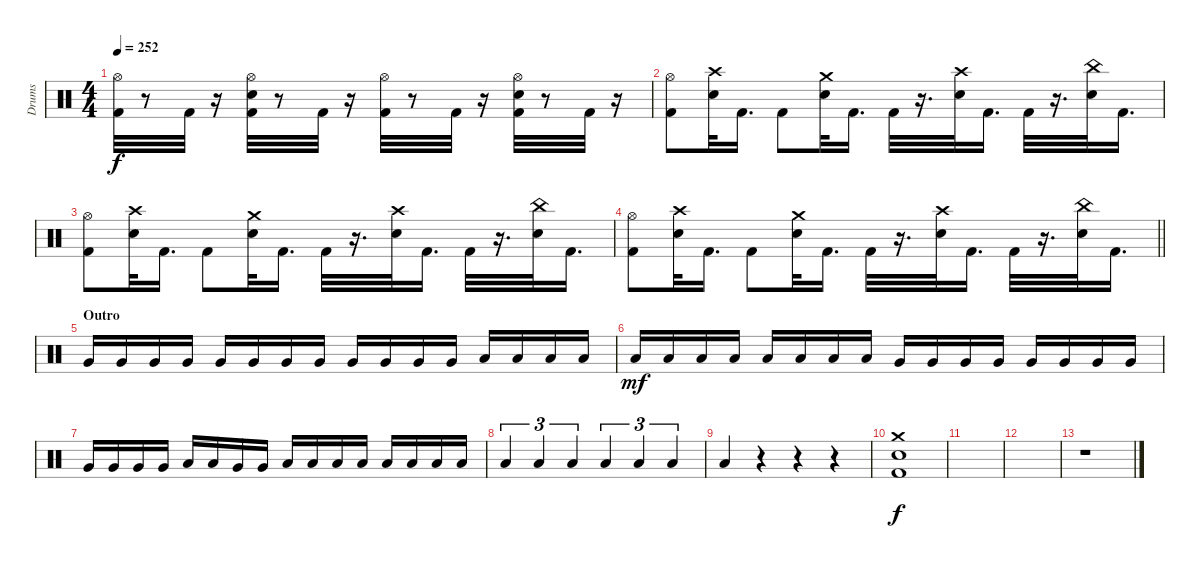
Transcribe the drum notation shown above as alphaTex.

\track ("Drums" "Drums") {instrument percussion}
\staff {score}
\articulation defaults
\ts (4 4)
\tempo 252
\clef neutral
\ks c
("Hi-Hat (open)" "Kick (hit) 2").32{dy f} r.8 "Kick (hit) 2".32 r.16 ("Snare (hit) 2" "Kick (hit) 2" "Hi-Hat (open)").32 r.8 "Kick (hit) 2".32 r.16 ("Kick (hit) 2" "Hi-Hat (open)").32 r.8 "Kick (hit) 2".32 r.16 ("Hi-Hat (open)" "Kick (hit) 2" "Snare (hit) 2").32 r.8 "Kick (hit) 2".32 r.16 |
("Hi-Hat (open)" "Kick (hit) 2").8 ("Crash high (hit)" "Snare (hit) 2").32 "Kick (hit) 2".16{d} "Kick (hit) 2".8 ("Snare (hit) 2" "Crash medium (hit)").32 "Kick (hit) 2".16{d} "Kick (hit) 2".32 r.16{d} ("Crash high (hit)" "Snare (hit) 2").32 "Kick (hit) 2".16{d} "Kick (hit) 2".32 r.16{d} ("Snare (hit) 2" "China (hit)").32 "Kick (hit) 2".16{d} |
("Hi-Hat (open)" "Kick (hit) 2").8 ("Crash high (hit)" "Snare (hit) 2").32 "Kick (hit) 2".16{d} "Kick (hit) 2".8 ("Snare (hit) 2" "Crash medium (hit)").32 "Kick (hit) 2".16{d} "Kick (hit) 2".32 r.16{d} ("Crash high (hit)" "Snare (hit) 2").32 "Kick (hit) 2".16{d} "Kick (hit) 2".32 r.16{d} ("Snare (hit) 2" "China (hit)").32 "Kick (hit) 2".16{d} |
\barLineRight lightlight
("Hi-Hat (open)" "Kick (hit) 2").8 ("Crash high (hit)" "Snare (hit) 2").32 "Kick (hit) 2".16{d} "Kick (hit) 2".8 ("Snare (hit) 2" "Crash medium (hit)").32 "Kick (hit) 2".16{d} "Kick (hit) 2".32 r.16{d} ("Crash high (hit)" "Snare (hit) 2").32 "Kick (hit) 2".16{d} "Kick (hit) 2".32 r.16{d} ("Snare (hit) 2" "China (hit)").32 "Kick (hit) 2".16{d} |
\section ("" "Outro")
"Very Low Tom (hit)".16 "Very Low Tom (hit)".16 "Very Low Tom (hit)".16 "Very Low Tom (hit)".16 "Very Low Tom (hit)".16 "Very Low Tom (hit)".16 "Very Low Tom (hit)".16 "Very Low Tom (hit)".16 "Very Low Tom (hit)".16 "Very Low Tom (hit)".16 "Very Low Tom (hit)".16 "Very Low Tom (hit)".16 "Low Tom (hit)".16 "Low Tom (hit)".16 "Low Tom (hit)".16 "Low Tom (hit)".16 |
"Low Tom (hit)".16{dy mf} "Low Tom (hit)".16 "Low Tom (hit)".16 "Low Tom (hit)".16 "Low Tom (hit)".16 "Low Tom (hit)".16 "Low Tom (hit)".16 "Low Tom (hit)".16 "Very Low Tom (hit)".16 "Very Low Tom (hit)".16 "Very Low Tom (hit)".16 "Very Low Tom (hit)".16 "Very Low Tom (hit)".16 "Very Low Tom (hit)".16 "Very Low Tom (hit)".16 "Very Low Tom (hit)".16 |
"Very Low Tom (hit)".16 "Very Low Tom (hit)".16 "Very Low Tom (hit)".16 "Very Low Tom (hit)".16 "Low Floor Tom (hit)".16 "Low Floor Tom (hit)".16 "Very Low Tom (hit)".16 "Very Low Tom (hit)".16 "Low Floor Tom (hit)".16 "Low Floor Tom (hit)".16 "Low Tom (hit)".16 "Low Tom (hit)".16 "Low Floor Tom (hit)".16 "Low Floor Tom (hit)".16 "Low Floor Tom (hit)".16 "Low Floor Tom (hit)".16 |
"Low Floor Tom (hit)".4{tu (3 2)} "Low Floor Tom (hit)".4{tu (3 2)} "Low Floor Tom (hit)".4{tu (3 2)} "Low Floor Tom (hit)".4{tu (3 2)} "Low Floor Tom (hit)".4{tu (3 2)} "Low Floor Tom (hit)".4{tu (3 2)} |
"Low Floor Tom (hit)".4 r.4 r.4 r.4 |
("Crash medium (hit)" "Kick (hit) 2" "Snare (hit) 2").1{dy f} |
|
|
r.1
